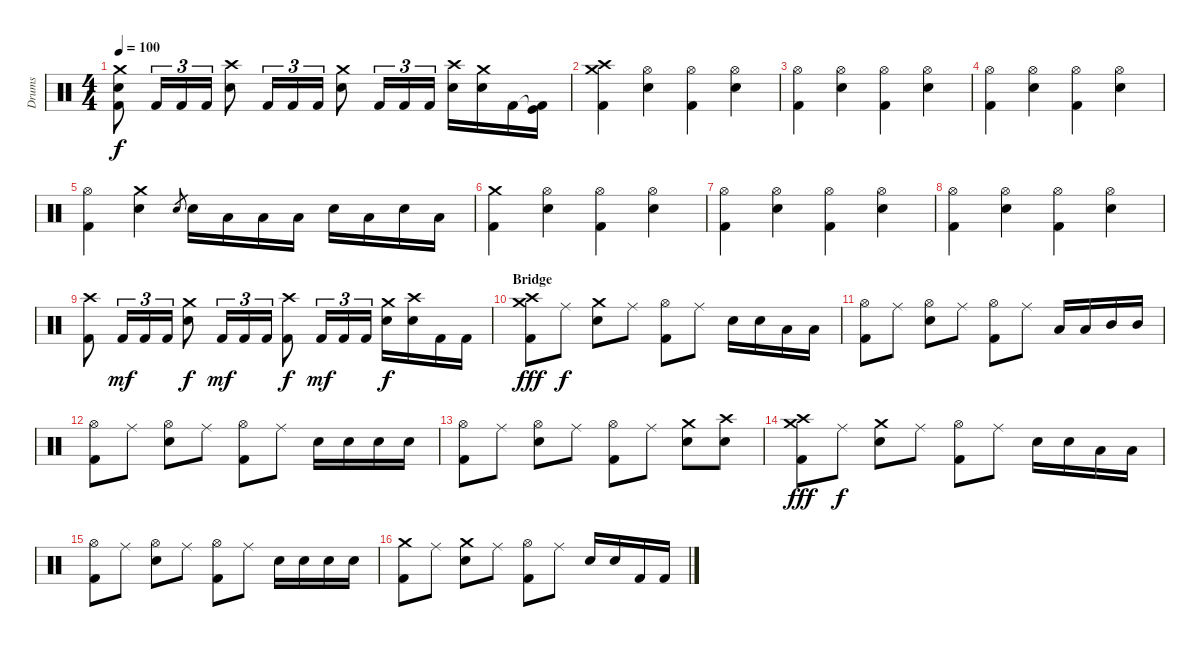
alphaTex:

\track ("Drums" "Drums") {instrument percussion}
\staff {score}
\articulation defaults
\ts (4 4)
\tempo 100
\clef neutral
\ks c
("Crash medium (hit)" "Snare (hit) 2" "Kick (hit) 2").8{dy f} "Kick (hit) 2".16{tu (3 2)} "Kick (hit) 2".16{tu (3 2)} "Kick (hit) 2".16{tu (3 2)} ("Crash high (hit)" "Snare (hit) 2").8 "Kick (hit) 2".16{tu (3 2)} "Kick (hit) 2".16{tu (3 2)} "Kick (hit) 2".16{tu (3 2)} ("Crash medium (hit)" "Snare (hit) 2").8 "Kick (hit) 2".16{tu (3 2)} "Kick (hit) 2".16{tu (3 2)} "Kick (hit) 2".16{tu (3 2)} ("Crash high (hit)" "Snare (hit) 2").16 ("Crash medium (hit)" "Snare (hit) 2").16 "Kick (hit) 2".16 ("Kick (hit)"{t} "Kick (hit) 2").16 |
("Crash high (hit)" "Crash medium (hit)" "Kick (hit) 2").4 ("Hi-Hat (open)" "Snare (hit) 2").4 ("Hi-Hat (open)" "Kick (hit) 2").4 ("Hi-Hat (open)" "Snare (hit) 2").4 |
("Hi-Hat (open)" "Kick (hit) 2").4 ("Hi-Hat (open)" "Snare (hit) 2").4 ("Hi-Hat (open)" "Kick (hit) 2").4 ("Hi-Hat (open)" "Snare (hit) 2").4 |
("Hi-Hat (open)" "Kick (hit) 2").4 ("Hi-Hat (open)" "Snare (hit) 2").4 ("Hi-Hat (open)" "Kick (hit) 2").4 ("Hi-Hat (open)" "Snare (hit) 2").4 |
("Hi-Hat (open)" "Kick (hit) 2").4 ("Crash medium (hit)" "Snare (hit) 2").4 "Electric Snare (hit)".8{gr} "Electric Snare (hit)".16 "Low Floor Tom (hit)".16 "Low Floor Tom (hit)".16 "Low Floor Tom (hit)".16 "Electric Snare (hit)".16 "Low Floor Tom (hit)".16 "Electric Snare (hit)".16 "Low Floor Tom (hit)".16 |
("Crash medium (hit)" "Kick (hit) 2").4 ("Hi-Hat (open)" "Snare (hit) 2").4 ("Hi-Hat (open)" "Kick (hit) 2").4 ("Hi-Hat (open)" "Snare (hit) 2").4 |
("Hi-Hat (open)" "Kick (hit) 2").4 ("Hi-Hat (open)" "Snare (hit) 2").4 ("Hi-Hat (open)" "Kick (hit) 2").4 ("Hi-Hat (open)" "Snare (hit) 2").4 |
("Hi-Hat (open)" "Kick (hit) 2").4 ("Hi-Hat (open)" "Snare (hit) 2").4 ("Hi-Hat (open)" "Kick (hit) 2").4 ("Hi-Hat (open)" "Snare (hit) 2").4 |
("Crash high (hit)" "Kick (hit) 2").8 "Kick (hit) 2".16{tu (3 2) dy mf} "Kick (hit) 2".16{tu (3 2)} "Kick (hit) 2".16{tu (3 2)} ("Crash medium (hit)" "Snare (hit) 2").8{dy f} "Kick (hit) 2".16{tu (3 2) dy mf} "Kick (hit) 2".16{tu (3 2)} "Kick (hit) 2".16{tu (3 2)} ("Crash high (hit)" "Kick (hit) 2").8{dy f} "Kick (hit) 2".16{tu (3 2) dy mf} "Kick (hit) 2".16{tu (3 2)} "Kick (hit) 2".16{tu (3 2)} ("Crash medium (hit)" "Snare (hit) 2").16{dy f} ("Crash high (hit)" "Snare (hit) 2").16 "Kick (hit) 2".16 "Kick (hit) 2".16 |
\section ("" "Bridge")
("Crash high (hit)" "Crash medium (hit)" "Kick (hit) 2").8{dy fff} "Ride (middle)".8{dy f} ("Crash medium (hit)" "Snare (hit) 2").8 "Ride (middle)".8 ("Hi-Hat (open)" "Kick (hit) 2").8 "Ride (middle)".8 "Electric Snare (hit)".16 "Electric Snare (hit)".16 "Low Floor Tom (hit)".16 "Low Floor Tom (hit)".16 |
("Hi-Hat (open)" "Kick (hit) 2").8 "Ride (middle)".8 ("Hi-Hat (open)" "Snare (hit) 2").8 "Ride (middle)".8 ("Hi-Hat (open)" "Kick (hit) 2").8 "Ride (middle)".8 "Low Tom (hit)".16 "Low Tom (hit)".16 "Mid Tom (hit)".16 "Mid Tom (hit)".16 |
("Hi-Hat (open)" "Kick (hit) 2").8 "Ride (middle)".8 ("Hi-Hat (open)" "Snare (hit) 2").8 "Ride (middle)".8 ("Hi-Hat (open)" "Kick (hit) 2").8 "Ride (middle)".8 "Electric Snare (hit)".16 "Electric Snare (hit)".16 "Electric Snare (hit)".16 "Electric Snare (hit)".16 |
("Hi-Hat (open)" "Kick (hit) 2").8 "Ride (middle)".8 ("Hi-Hat (open)" "Snare (hit) 2").8 "Ride (middle)".8 ("Hi-Hat (open)" "Kick (hit) 2").8 "Ride (middle)".8 ("Crash medium (hit)" "Snare (hit) 2").8 ("Crash high (hit)" "Snare (hit) 2").8 |
("Crash high (hit)" "Crash medium (hit)" "Kick (hit) 2").8{dy fff} "Ride (middle)".8{dy f} ("Crash medium (hit)" "Snare (hit) 2").8 "Ride (middle)".8 ("Hi-Hat (open)" "Kick (hit) 2").8 "Ride (middle)".8 "Electric Snare (hit)".16 "Electric Snare (hit)".16 "Low Floor Tom (hit)".16 "Low Floor Tom (hit)".16 |
("Hi-Hat (open)" "Kick (hit) 2").8 "Ride (middle)".8 ("Hi-Hat (open)" "Snare (hit) 2").8 "Ride (middle)".8 ("Hi-Hat (open)" "Kick (hit) 2").8 "Ride (middle)".8 "Snare (hit) 2".16 "Snare (hit) 2".16 "Snare (hit) 2".16 "Snare (hit) 2".16 |
("Crash medium (hit)" "Kick (hit) 2").8 "Ride (middle)".8 ("Crash medium (hit)" "Snare (hit) 2").8 "Ride (middle)".8 ("Hi-Hat (open)" "Kick (hit) 2").8 "Ride (middle)".8 "Snare (hit) 2".16 "Snare (hit) 2".16 "Kick (hit) 2".16 "Kick (hit) 2".16
